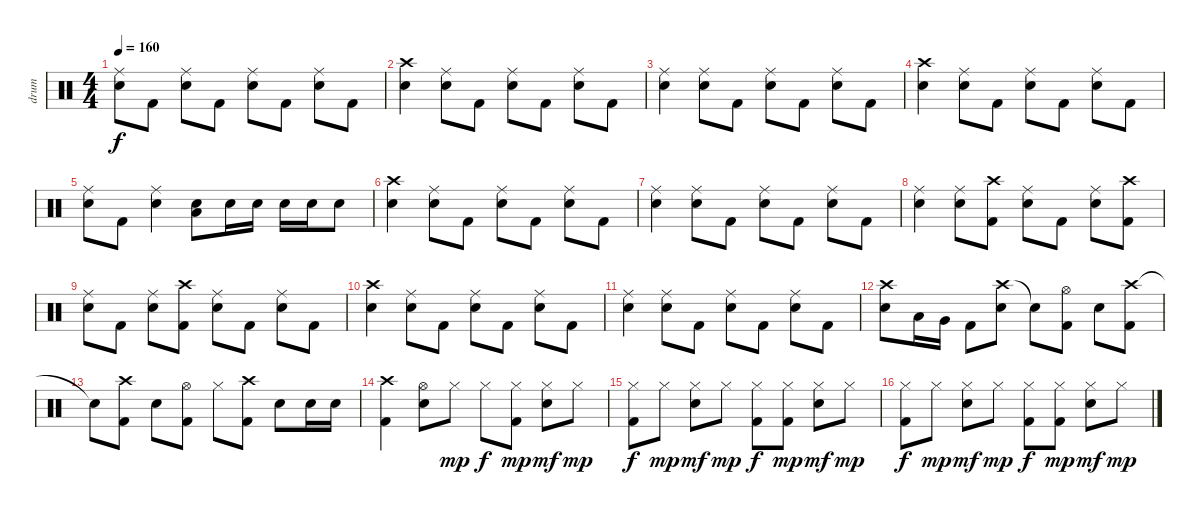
\track ("drum" "drum") {instrument percussion}
\staff {score}
\articulation defaults
\ts (4 4)
\tempo 160
\clef neutral
\ks c
("Ride (middle)" "Electric Snare (hit)").8{dy f} "Kick (hit) 2".8 ("Ride (middle)" "Electric Snare (hit)").8 "Kick (hit) 2".8 ("Ride (middle)" "Electric Snare (hit)").8 "Kick (hit) 2".8 ("Ride (middle)" "Electric Snare (hit)").8 "Kick (hit) 2".8 |
("Crash high (hit)" "Electric Snare (hit)").4 ("Ride (middle)" "Electric Snare (hit)").8 "Kick (hit) 2".8 ("Ride (middle)" "Electric Snare (hit)").8 "Kick (hit) 2".8 ("Ride (middle)" "Electric Snare (hit)").8 "Kick (hit) 2".8 |
("Ride (middle)" "Electric Snare (hit)").4 ("Ride (middle)" "Electric Snare (hit)").8 "Kick (hit) 2".8 ("Ride (middle)" "Electric Snare (hit)").8 "Kick (hit) 2".8 ("Ride (middle)" "Electric Snare (hit)").8 "Kick (hit) 2".8 |
("Crash high (hit)" "Electric Snare (hit)").4 ("Ride (middle)" "Electric Snare (hit)").8 "Kick (hit) 2".8 ("Ride (middle)" "Electric Snare (hit)").8 "Kick (hit) 2".8 ("Ride (middle)" "Electric Snare (hit)").8 "Kick (hit) 2".8 |
("Ride (middle)" "Electric Snare (hit)").8 "Kick (hit) 2".8 ("Ride (middle)" "Electric Snare (hit)").4 ("Electric Snare (hit)" "Low Tom (hit)").8 "Electric Snare (hit)".16 "Electric Snare (hit)".16 "Electric Snare (hit)".16 "Electric Snare (hit)".16 "Electric Snare (hit)".8 |
("Crash high (hit)" "Electric Snare (hit)").4 ("Ride (middle)" "Electric Snare (hit)").8 "Kick (hit) 2".8 ("Ride (middle)" "Electric Snare (hit)").8 "Kick (hit) 2".8 ("Ride (middle)" "Electric Snare (hit)").8 "Kick (hit) 2".8 |
("Ride (middle)" "Electric Snare (hit)").4 ("Ride (middle)" "Electric Snare (hit)").8 "Kick (hit) 2".8 ("Ride (middle)" "Electric Snare (hit)").8 "Kick (hit) 2".8 ("Ride (middle)" "Electric Snare (hit)").8 "Kick (hit) 2".8 |
("Ride (middle)" "Electric Snare (hit)").4 ("Ride (middle)" "Electric Snare (hit)").8 ("Crash high (hit)" "Kick (hit) 2").8 ("Ride (middle)" "Electric Snare (hit)").8 "Kick (hit) 2".8 ("Ride (middle)" "Electric Snare (hit)").8 ("Crash high (hit)" "Kick (hit) 2").8 |
("Ride (middle)" "Electric Snare (hit)").8 "Kick (hit) 2".8 ("Ride (middle)" "Electric Snare (hit)").8 ("Crash high (hit)" "Kick (hit) 2").8 ("Ride (middle)" "Electric Snare (hit)").8 "Kick (hit) 2".8 ("Ride (middle)" "Electric Snare (hit)").8 "Kick (hit) 2".8 |
("Crash high (hit)" "Electric Snare (hit)").4 ("Ride (middle)" "Electric Snare (hit)").8 "Kick (hit) 2".8 ("Ride (middle)" "Electric Snare (hit)").8 "Kick (hit) 2".8 ("Ride (middle)" "Electric Snare (hit)").8 "Kick (hit) 2".8 |
("Ride (middle)" "Electric Snare (hit)").4 ("Ride (middle)" "Electric Snare (hit)").8 "Kick (hit) 2".8 ("Ride (middle)" "Electric Snare (hit)").8 "Kick (hit) 2".8 ("Ride (middle)" "Electric Snare (hit)").8 "Kick (hit) 2".8 |
("Crash high (hit)" "Electric Snare (hit)").8 "Low Tom (hit)".16 "Very Low Tom (hit)".16 "Kick (hit) 2".8 ("Crash high (hit)" "Electric Snare (hit)").8 "Snare (hit)"{t}.8 ("Hi-Hat (open)" "Kick (hit) 2").8 "Electric Snare (hit)".8 ("Crash high (hit)" "Kick (hit) 2").8 |
"Snare (hit)"{t}.8 ("Crash high (hit)" "Kick (hit) 2").8 "Electric Snare (hit)".8 ("Hi-Hat (open)" "Kick (hit) 2").8 "Hi-Hat (closed)".8 ("Crash high (hit)" "Kick (hit) 2").8 "Electric Snare (hit)".8 "Electric Snare (hit)".16 "Electric Snare (hit)".16 |
("Crash high (hit)" "Kick (hit) 2").4 ("Hi-Hat (open)" "Electric Snare (hit)").8 "Hi-Hat (closed)".8{dy mp} "Hi-Hat (closed)".8{dy f} ("Hi-Hat (closed)" "Kick (hit) 2").8{dy mp} ("Hi-Hat (closed)" "Electric Snare (hit)").8{dy mf} "Hi-Hat (closed)".8{dy mp} |
("Hi-Hat (closed)" "Kick (hit) 2").8{dy f} "Hi-Hat (closed)".8{dy mp} ("Hi-Hat (closed)" "Electric Snare (hit)").8{dy mf} "Hi-Hat (closed)".8{dy mp} ("Hi-Hat (closed)" "Kick (hit) 2").8{dy f} ("Hi-Hat (closed)" "Kick (hit) 2").8{dy mp} ("Hi-Hat (closed)" "Electric Snare (hit)").8{dy mf} "Hi-Hat (closed)".8{dy mp} |
("Hi-Hat (closed)" "Kick (hit) 2").8{dy f} "Hi-Hat (closed)".8{dy mp} ("Hi-Hat (closed)" "Electric Snare (hit)").8{dy mf} "Hi-Hat (closed)".8{dy mp} ("Hi-Hat (closed)" "Kick (hit) 2").8{dy f} ("Hi-Hat (closed)" "Kick (hit) 2").8{dy mp} ("Hi-Hat (closed)" "Electric Snare (hit)").8{dy mf} "Hi-Hat (closed)".8{dy mp}
